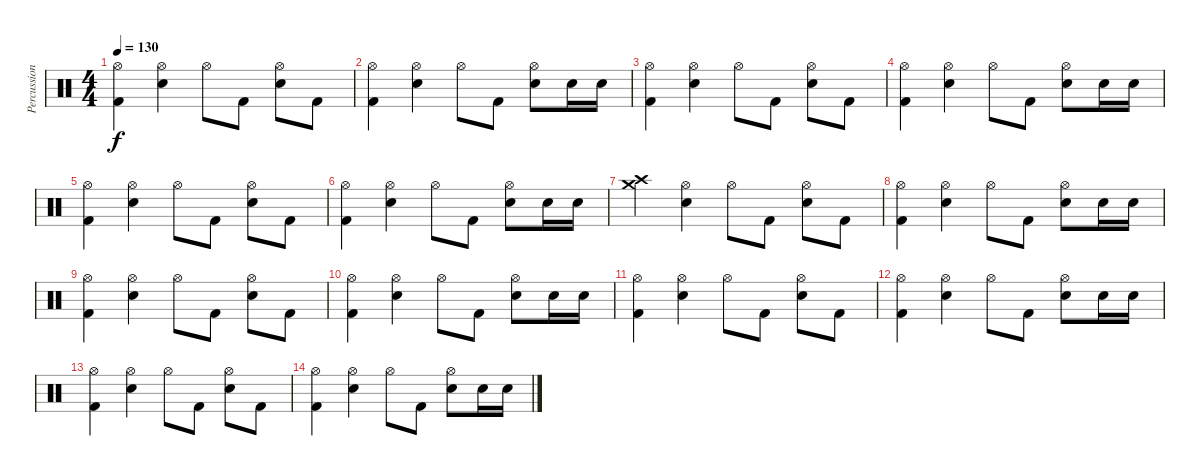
\track ("Percussion" "Percussion") {instrument percussion}
\staff {score}
\articulation defaults
\ts (4 4)
\tempo 130
\clef neutral
\ks c
("Hi-Hat (open)" "Kick (hit) 2").4{dy f} ("Hi-Hat (open)" "Electric Snare (hit)").4 "Hi-Hat (open)".8 "Kick (hit) 2".8 ("Hi-Hat (open)" "Electric Snare (hit)").8 "Kick (hit) 2".8 |
("Hi-Hat (open)" "Kick (hit) 2").4 ("Hi-Hat (open)" "Electric Snare (hit)").4 "Hi-Hat (open)".8 "Kick (hit) 2".8 ("Hi-Hat (open)" "Electric Snare (hit)").8 "Electric Snare (hit)".16 "Electric Snare (hit)".16 |
("Hi-Hat (open)" "Kick (hit) 2").4 ("Hi-Hat (open)" "Electric Snare (hit)").4 "Hi-Hat (open)".8 "Kick (hit) 2".8 ("Hi-Hat (open)" "Electric Snare (hit)").8 "Kick (hit) 2".8 |
("Hi-Hat (open)" "Kick (hit) 2").4 ("Hi-Hat (open)" "Electric Snare (hit)").4 "Hi-Hat (open)".8 "Kick (hit) 2".8 ("Hi-Hat (open)" "Electric Snare (hit)").8 "Electric Snare (hit)".16 "Electric Snare (hit)".16 |
("Hi-Hat (open)" "Kick (hit) 2").4 ("Hi-Hat (open)" "Electric Snare (hit)").4 "Hi-Hat (open)".8 "Kick (hit) 2".8 ("Hi-Hat (open)" "Electric Snare (hit)").8 "Kick (hit) 2".8 |
("Hi-Hat (open)" "Kick (hit) 2").4 ("Hi-Hat (open)" "Electric Snare (hit)").4 "Hi-Hat (open)".8 "Kick (hit) 2".8 ("Hi-Hat (open)" "Electric Snare (hit)").8 "Electric Snare (hit)".16 "Electric Snare (hit)".16 |
("Crash medium (hit)" "Crash high (hit)").4 ("Hi-Hat (open)" "Electric Snare (hit)").4 "Hi-Hat (open)".8 "Kick (hit) 2".8 ("Hi-Hat (open)" "Electric Snare (hit)").8 "Kick (hit) 2".8 |
("Hi-Hat (open)" "Kick (hit) 2").4 ("Hi-Hat (open)" "Electric Snare (hit)").4 "Hi-Hat (open)".8 "Kick (hit) 2".8 ("Hi-Hat (open)" "Electric Snare (hit)").8 "Electric Snare (hit)".16 "Electric Snare (hit)".16 |
("Hi-Hat (open)" "Kick (hit) 2").4 ("Hi-Hat (open)" "Electric Snare (hit)").4 "Hi-Hat (open)".8 "Kick (hit) 2".8 ("Hi-Hat (open)" "Electric Snare (hit)").8 "Kick (hit) 2".8 |
("Hi-Hat (open)" "Kick (hit) 2").4 ("Hi-Hat (open)" "Electric Snare (hit)").4 "Hi-Hat (open)".8 "Kick (hit) 2".8 ("Hi-Hat (open)" "Electric Snare (hit)").8 "Electric Snare (hit)".16 "Electric Snare (hit)".16 |
("Hi-Hat (open)" "Kick (hit) 2").4 ("Hi-Hat (open)" "Electric Snare (hit)").4 "Hi-Hat (open)".8 "Kick (hit) 2".8 ("Hi-Hat (open)" "Electric Snare (hit)").8 "Kick (hit) 2".8 |
("Hi-Hat (open)" "Kick (hit) 2").4 ("Hi-Hat (open)" "Electric Snare (hit)").4 "Hi-Hat (open)".8 "Kick (hit) 2".8 ("Hi-Hat (open)" "Electric Snare (hit)").8 "Electric Snare (hit)".16 "Electric Snare (hit)".16 |
("Hi-Hat (open)" "Kick (hit) 2").4 ("Hi-Hat (open)" "Electric Snare (hit)").4 "Hi-Hat (open)".8 "Kick (hit) 2".8 ("Hi-Hat (open)" "Electric Snare (hit)").8 "Kick (hit) 2".8 |
("Hi-Hat (open)" "Kick (hit) 2").4 ("Hi-Hat (open)" "Electric Snare (hit)").4 "Hi-Hat (open)".8 "Kick (hit) 2".8 ("Hi-Hat (open)" "Electric Snare (hit)").8 "Electric Snare (hit)".16 "Electric Snare (hit)".16
